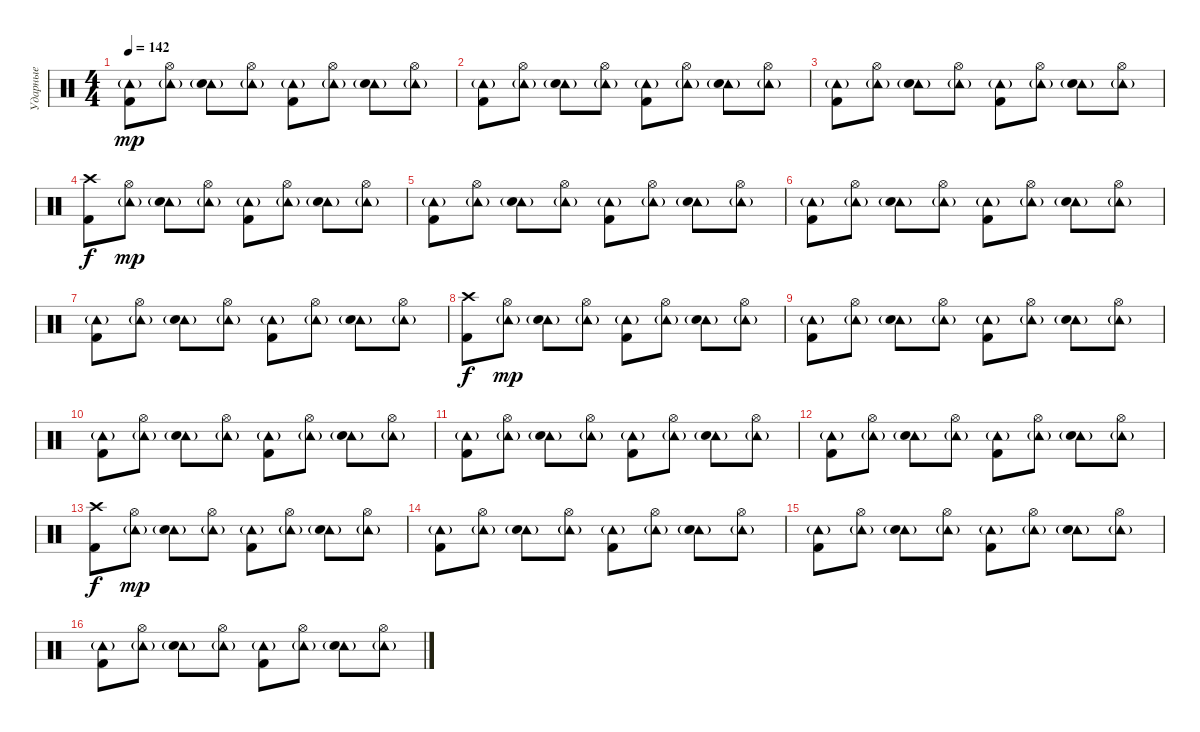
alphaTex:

\track ("Ударные" "Ударные") {instrument percussion}
\staff {score}
\articulation defaults
\ts (4 4)
\tempo 142
\clef neutral
\ks c
("Tambourine (hit)"{g} "Kick (hit) 2").8{dy mp} ("Tambourine (hit)"{g} "Hi-Hat (open)").8 ("Tambourine (hit)"{g} "Electric Snare (hit)").8 ("Tambourine (hit)"{g} "Hi-Hat (open)").8 ("Tambourine (hit)"{g} "Kick (hit) 2").8 ("Tambourine (hit)"{g} "Hi-Hat (open)").8 ("Tambourine (hit)"{g} "Electric Snare (hit)").8 ("Tambourine (hit)"{g} "Hi-Hat (open)").8 |
("Tambourine (hit)"{g} "Kick (hit) 2").8 ("Tambourine (hit)"{g} "Hi-Hat (open)").8 ("Tambourine (hit)"{g} "Electric Snare (hit)").8 ("Tambourine (hit)"{g} "Hi-Hat (open)").8 ("Tambourine (hit)"{g} "Kick (hit) 2").8 ("Tambourine (hit)"{g} "Hi-Hat (open)").8 ("Tambourine (hit)"{g} "Electric Snare (hit)").8 ("Tambourine (hit)"{g} "Hi-Hat (open)").8 |
("Tambourine (hit)"{g} "Kick (hit) 2").8 ("Tambourine (hit)"{g} "Hi-Hat (open)").8 ("Tambourine (hit)"{g} "Electric Snare (hit)").8 ("Tambourine (hit)"{g} "Hi-Hat (open)").8 ("Tambourine (hit)"{g} "Kick (hit) 2").8 ("Tambourine (hit)"{g} "Hi-Hat (open)").8 ("Tambourine (hit)"{g} "Electric Snare (hit)").8 ("Tambourine (hit)"{g} "Hi-Hat (open)").8 |
("Crash high (hit)" "Kick (hit) 2").8{dy f} ("Tambourine (hit)"{g} "Hi-Hat (open)").8{dy mp} ("Tambourine (hit)"{g} "Electric Snare (hit)").8 ("Tambourine (hit)"{g} "Hi-Hat (open)").8 ("Tambourine (hit)"{g} "Kick (hit) 2").8 ("Tambourine (hit)"{g} "Hi-Hat (open)").8 ("Tambourine (hit)"{g} "Electric Snare (hit)").8 ("Tambourine (hit)"{g} "Hi-Hat (open)").8 |
("Tambourine (hit)"{g} "Kick (hit) 2").8 ("Tambourine (hit)"{g} "Hi-Hat (open)").8 ("Tambourine (hit)"{g} "Electric Snare (hit)").8 ("Tambourine (hit)"{g} "Hi-Hat (open)").8 ("Tambourine (hit)"{g} "Kick (hit) 2").8 ("Tambourine (hit)"{g} "Hi-Hat (open)").8 ("Tambourine (hit)"{g} "Electric Snare (hit)").8 ("Tambourine (hit)"{g} "Hi-Hat (open)").8 |
("Tambourine (hit)"{g} "Kick (hit) 2").8 ("Tambourine (hit)"{g} "Hi-Hat (open)").8 ("Tambourine (hit)"{g} "Electric Snare (hit)").8 ("Tambourine (hit)"{g} "Hi-Hat (open)").8 ("Tambourine (hit)"{g} "Kick (hit) 2").8 ("Tambourine (hit)"{g} "Hi-Hat (open)").8 ("Tambourine (hit)"{g} "Electric Snare (hit)").8 ("Tambourine (hit)"{g} "Hi-Hat (open)").8 |
("Tambourine (hit)"{g} "Kick (hit) 2").8 ("Tambourine (hit)"{g} "Hi-Hat (open)").8 ("Tambourine (hit)"{g} "Electric Snare (hit)").8 ("Tambourine (hit)"{g} "Hi-Hat (open)").8 ("Tambourine (hit)"{g} "Kick (hit) 2").8 ("Tambourine (hit)"{g} "Hi-Hat (open)").8 ("Tambourine (hit)"{g} "Electric Snare (hit)").8 ("Tambourine (hit)"{g} "Hi-Hat (open)").8 |
("Crash high (hit)" "Kick (hit) 2").8{dy f} ("Tambourine (hit)"{g} "Hi-Hat (open)").8{dy mp} ("Tambourine (hit)"{g} "Electric Snare (hit)").8 ("Tambourine (hit)"{g} "Hi-Hat (open)").8 ("Tambourine (hit)"{g} "Kick (hit) 2").8 ("Tambourine (hit)"{g} "Hi-Hat (open)").8 ("Tambourine (hit)"{g} "Electric Snare (hit)").8 ("Tambourine (hit)"{g} "Hi-Hat (open)").8 |
("Tambourine (hit)"{g} "Kick (hit) 2").8 ("Tambourine (hit)"{g} "Hi-Hat (open)").8 ("Tambourine (hit)"{g} "Electric Snare (hit)").8 ("Tambourine (hit)"{g} "Hi-Hat (open)").8 ("Tambourine (hit)"{g} "Kick (hit) 2").8 ("Tambourine (hit)"{g} "Hi-Hat (open)").8 ("Tambourine (hit)"{g} "Electric Snare (hit)").8 ("Tambourine (hit)"{g} "Hi-Hat (open)").8 |
("Tambourine (hit)"{g} "Kick (hit) 2").8 ("Tambourine (hit)"{g} "Hi-Hat (open)").8 ("Tambourine (hit)"{g} "Electric Snare (hit)").8 ("Tambourine (hit)"{g} "Hi-Hat (open)").8 ("Tambourine (hit)"{g} "Kick (hit) 2").8 ("Tambourine (hit)"{g} "Hi-Hat (open)").8 ("Tambourine (hit)"{g} "Electric Snare (hit)").8 ("Tambourine (hit)"{g} "Hi-Hat (open)").8 |
("Tambourine (hit)"{g} "Kick (hit) 2").8 ("Tambourine (hit)"{g} "Hi-Hat (open)").8 ("Tambourine (hit)"{g} "Electric Snare (hit)").8 ("Tambourine (hit)"{g} "Hi-Hat (open)").8 ("Tambourine (hit)"{g} "Kick (hit) 2").8 ("Tambourine (hit)"{g} "Hi-Hat (open)").8 ("Tambourine (hit)"{g} "Electric Snare (hit)").8 ("Tambourine (hit)"{g} "Hi-Hat (open)").8 |
("Tambourine (hit)"{g} "Kick (hit) 2").8 ("Tambourine (hit)"{g} "Hi-Hat (open)").8 ("Tambourine (hit)"{g} "Electric Snare (hit)").8 ("Tambourine (hit)"{g} "Hi-Hat (open)").8 ("Tambourine (hit)"{g} "Kick (hit) 2").8 ("Tambourine (hit)"{g} "Hi-Hat (open)").8 ("Tambourine (hit)"{g} "Electric Snare (hit)").8 ("Tambourine (hit)"{g} "Hi-Hat (open)").8 |
("Crash high (hit)" "Kick (hit) 2").8{dy f} ("Tambourine (hit)"{g} "Hi-Hat (open)").8{dy mp} ("Tambourine (hit)"{g} "Electric Snare (hit)").8 ("Tambourine (hit)"{g} "Hi-Hat (open)").8 ("Tambourine (hit)"{g} "Kick (hit) 2").8 ("Tambourine (hit)"{g} "Hi-Hat (open)").8 ("Tambourine (hit)"{g} "Electric Snare (hit)").8 ("Tambourine (hit)"{g} "Hi-Hat (open)").8 |
("Tambourine (hit)"{g} "Kick (hit) 2").8 ("Tambourine (hit)"{g} "Hi-Hat (open)").8 ("Tambourine (hit)"{g} "Electric Snare (hit)").8 ("Tambourine (hit)"{g} "Hi-Hat (open)").8 ("Tambourine (hit)"{g} "Kick (hit) 2").8 ("Tambourine (hit)"{g} "Hi-Hat (open)").8 ("Tambourine (hit)"{g} "Electric Snare (hit)").8 ("Tambourine (hit)"{g} "Hi-Hat (open)").8 |
("Tambourine (hit)"{g} "Kick (hit) 2").8 ("Tambourine (hit)"{g} "Hi-Hat (open)").8 ("Tambourine (hit)"{g} "Electric Snare (hit)").8 ("Tambourine (hit)"{g} "Hi-Hat (open)").8 ("Tambourine (hit)"{g} "Kick (hit) 2").8 ("Tambourine (hit)"{g} "Hi-Hat (open)").8 ("Tambourine (hit)"{g} "Electric Snare (hit)").8 ("Tambourine (hit)"{g} "Hi-Hat (open)").8 |
("Tambourine (hit)"{g} "Kick (hit) 2").8 ("Tambourine (hit)"{g} "Hi-Hat (open)").8 ("Tambourine (hit)"{g} "Electric Snare (hit)").8 ("Tambourine (hit)"{g} "Hi-Hat (open)").8 ("Tambourine (hit)"{g} "Kick (hit) 2").8 ("Tambourine (hit)"{g} "Hi-Hat (open)").8 ("Tambourine (hit)"{g} "Electric Snare (hit)").8 ("Tambourine (hit)"{g} "Hi-Hat (open)").8
